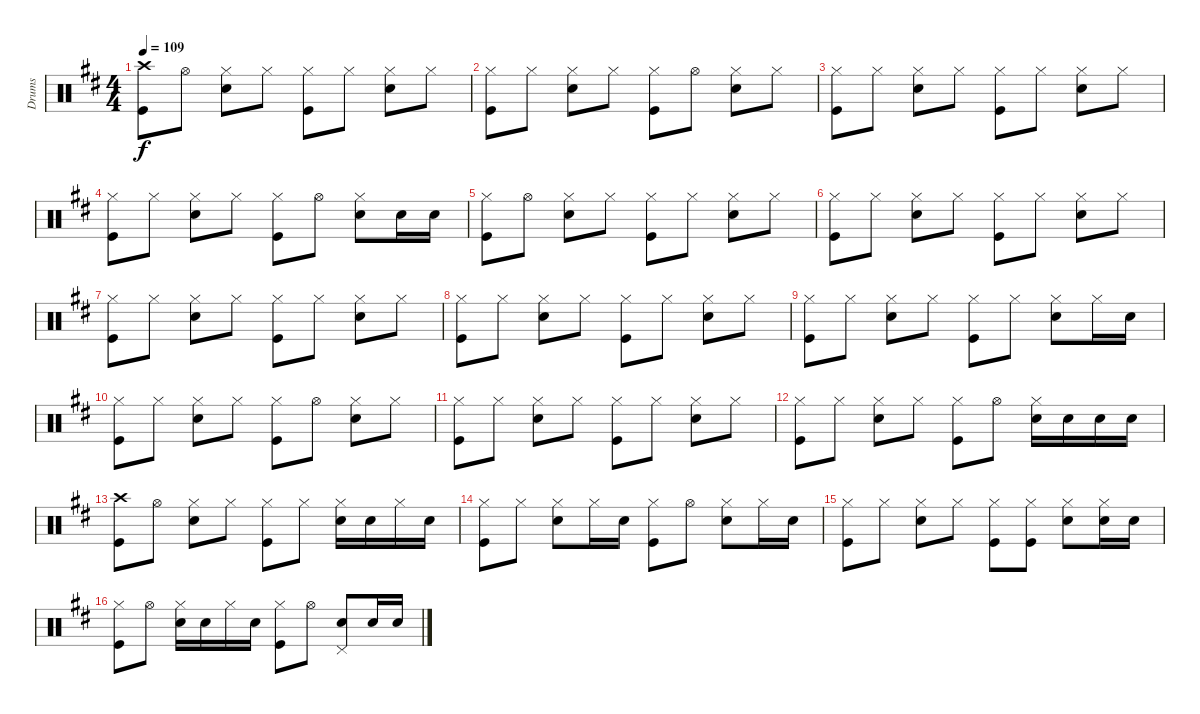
\track ("Drums" "Drums") {instrument percussion}
\staff {score}
\articulation defaults
\ts (4 4)
\tempo 109
\clef neutral
\ks d
("Kick (hit)" "Crash high (hit)").8{dy f} "Hi-Hat (open)".8 ("Snare (hit) 2" "Hi-Hat (closed)").8 "Hi-Hat (closed)".8 ("Kick (hit)" "Hi-Hat (closed)").8 "Hi-Hat (closed)".8 ("Snare (hit) 2" "Hi-Hat (closed)").8 "Hi-Hat (closed)".8 |
("Kick (hit)" "Hi-Hat (closed)").8 "Hi-Hat (closed)".8 ("Snare (hit) 2" "Hi-Hat (closed)").8 "Hi-Hat (closed)".8 ("Kick (hit)" "Hi-Hat (closed)").8 "Hi-Hat (open)".8 ("Snare (hit) 2" "Hi-Hat (closed)").8 "Hi-Hat (closed)".8 |
("Kick (hit)" "Hi-Hat (closed)").8 "Hi-Hat (closed)".8 ("Snare (hit) 2" "Hi-Hat (closed)").8 "Hi-Hat (closed)".8 ("Kick (hit)" "Hi-Hat (closed)").8 "Hi-Hat (closed)".8 ("Snare (hit) 2" "Hi-Hat (closed)").8 "Hi-Hat (closed)".8 |
("Kick (hit)" "Hi-Hat (closed)").8 "Hi-Hat (closed)".8 ("Snare (hit) 2" "Hi-Hat (closed)").8 "Hi-Hat (closed)".8 ("Kick (hit)" "Hi-Hat (closed)").8 "Hi-Hat (open)".8 ("Snare (hit) 2" "Hi-Hat (closed)").8 "Snare (hit) 2".16 "Snare (hit) 2".16 |
("Kick (hit)" "Hi-Hat (closed)").8 "Hi-Hat (open)".8 ("Snare (hit) 2" "Hi-Hat (closed)").8 "Hi-Hat (closed)".8 ("Kick (hit)" "Hi-Hat (closed)").8 "Hi-Hat (closed)".8 ("Snare (hit) 2" "Hi-Hat (closed)").8 "Hi-Hat (closed)".8 |
("Kick (hit)" "Hi-Hat (closed)").8 "Hi-Hat (closed)".8 ("Snare (hit) 2" "Hi-Hat (closed)").8 "Hi-Hat (closed)".8 ("Kick (hit)" "Hi-Hat (closed)").8 "Hi-Hat (closed)".8 ("Snare (hit) 2" "Hi-Hat (closed)").8 "Hi-Hat (closed)".8 |
("Kick (hit)" "Hi-Hat (closed)").8 "Hi-Hat (closed)".8 ("Snare (hit) 2" "Hi-Hat (closed)").8 "Hi-Hat (closed)".8 ("Kick (hit)" "Hi-Hat (closed)").8 "Hi-Hat (closed)".8 ("Snare (hit) 2" "Hi-Hat (closed)").8 "Hi-Hat (closed)".8 |
("Kick (hit)" "Hi-Hat (closed)").8 "Hi-Hat (closed)".8 ("Snare (hit) 2" "Hi-Hat (closed)").8 "Hi-Hat (closed)".8 ("Kick (hit)" "Hi-Hat (closed)").8 "Hi-Hat (closed)".8 ("Snare (hit) 2" "Hi-Hat (closed)").8 "Hi-Hat (closed)".8 |
("Kick (hit)" "Hi-Hat (closed)").8 "Hi-Hat (closed)".8 ("Snare (hit) 2" "Hi-Hat (closed)").8 "Hi-Hat (closed)".8 ("Kick (hit)" "Hi-Hat (closed)").8 "Hi-Hat (closed)".8 ("Snare (hit) 2" "Hi-Hat (closed)").8 "Hi-Hat (closed)".16 "Snare (hit) 2".16 |
("Kick (hit)" "Hi-Hat (closed)").8 "Hi-Hat (closed)".8 ("Snare (hit) 2" "Hi-Hat (closed)").8 "Hi-Hat (closed)".8 ("Kick (hit)" "Hi-Hat (closed)").8 "Hi-Hat (open)".8 ("Snare (hit) 2" "Hi-Hat (closed)").8 "Hi-Hat (closed)".8 |
("Hi-Hat (closed)" "Kick (hit)").8 "Hi-Hat (closed)".8 ("Hi-Hat (closed)" "Snare (hit) 2").8 "Hi-Hat (closed)".8 ("Hi-Hat (closed)" "Kick (hit)").8 "Hi-Hat (closed)".8 ("Hi-Hat (closed)" "Snare (hit) 2").8 "Hi-Hat (closed)".8 |
("Hi-Hat (closed)" "Kick (hit)").8 "Hi-Hat (closed)".8 ("Hi-Hat (closed)" "Snare (hit) 2").8 "Hi-Hat (closed)".8 ("Hi-Hat (closed)" "Kick (hit)").8 "Hi-Hat (open)".8 ("Hi-Hat (closed)" "Snare (hit) 2").16 "Snare (hit) 2".16 "Snare (hit) 2".16 "Snare (hit) 2".16 |
("Kick (hit)" "Crash high (hit)").8 "Hi-Hat (open)".8 ("Snare (hit) 2" "Hi-Hat (closed)").8 "Hi-Hat (closed)".8 ("Kick (hit)" "Hi-Hat (closed)").8 "Hi-Hat (closed)".8 ("Snare (hit) 2" "Hi-Hat (closed)").16 "Snare (hit) 2".16 "Hi-Hat (closed)".16 "Snare (hit) 2".16 |
("Hi-Hat (closed)" "Kick (hit)").8 "Hi-Hat (closed)".8 ("Hi-Hat (closed)" "Snare (hit) 2").8 "Hi-Hat (closed)".16 "Snare (hit) 2".16 ("Hi-Hat (closed)" "Kick (hit)").8 "Hi-Hat (open)".8 ("Hi-Hat (closed)" "Snare (hit) 2").8 "Hi-Hat (closed)".16 "Snare (hit) 2".16 |
("Hi-Hat (closed)" "Kick (hit)").8 "Hi-Hat (closed)".8 ("Hi-Hat (closed)" "Snare (hit) 2").8 "Hi-Hat (closed)".8 ("Hi-Hat (closed)" "Kick (hit)").8 ("Hi-Hat (closed)" "Kick (hit)").8 ("Hi-Hat (closed)" "Snare (hit) 2").8 ("Hi-Hat (closed)" "Snare (hit) 2").16 "Snare (hit) 2".16 |
("Hi-Hat (closed)" "Kick (hit)").8 "Hi-Hat (open)".8 ("Hi-Hat (closed)" "Snare (hit) 2").16 "Snare (hit) 2".16 "Hi-Hat (closed)".16 "Snare (hit) 2".16 ("Hi-Hat (closed)" "Kick (hit)").8 "Hi-Hat (open)".8 ("Pedal Hi-Hat (hit)" "Snare (hit) 2").8 "Snare (hit) 2".16 "Snare (hit) 2".16
